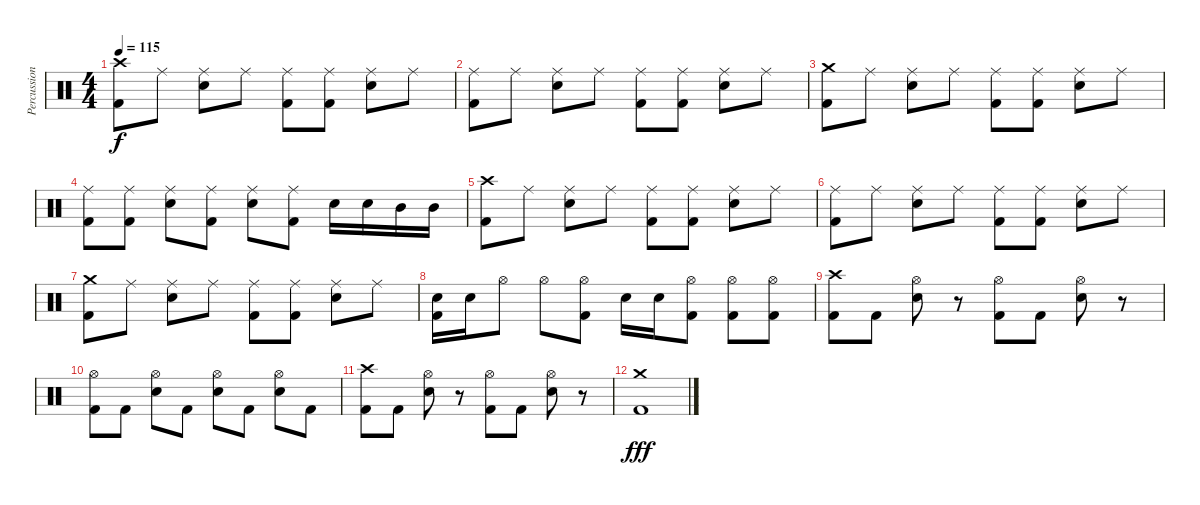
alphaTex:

\track ("Percussion" "Percussion") {instrument percussion}
\staff {score}
\articulation defaults
\ts (4 4)
\tempo 115
\clef neutral
\ks c
("Crash high (hit)" "Kick (hit) 2").8{dy f} "Ride (middle)".8 ("Ride (middle)" "Electric Snare (hit)").8 "Ride (middle)".8 ("Ride (middle)" "Kick (hit) 2").8 ("Ride (middle)" "Kick (hit) 2").8 ("Ride (middle)" "Electric Snare (hit)").8 "Ride (middle)".8 |
("Ride (middle)" "Kick (hit) 2").8 "Ride (middle)".8 ("Ride (middle)" "Electric Snare (hit)").8 "Ride (middle)".8 ("Ride (middle)" "Kick (hit) 2").8 ("Ride (middle)" "Kick (hit) 2").8 ("Ride (middle)" "Electric Snare (hit)").8 "Ride (middle)".8 |
("Crash medium (hit)" "Kick (hit) 2").8 "Ride (middle)".8 ("Ride (middle)" "Electric Snare (hit)").8 "Ride (middle)".8 ("Ride (middle)" "Kick (hit) 2").8 ("Ride (middle)" "Kick (hit) 2").8 ("Ride (middle)" "Electric Snare (hit)").8 "Ride (middle)".8 |
("Ride (middle)" "Kick (hit) 2").8 ("Ride (middle)" "Kick (hit) 2").8 ("Ride (middle)" "Electric Snare (hit)").8 ("Ride (middle)" "Kick (hit) 2").8 ("Ride (middle)" "Electric Snare (hit)").8 ("Ride (middle)" "Kick (hit) 2").8 "Electric Snare (hit)".16 "Electric Snare (hit)".16 "Mid Tom (hit)".16 "Mid Tom (hit)".16 |
("Crash high (hit)" "Kick (hit) 2").8 "Ride (middle)".8 ("Ride (middle)" "Electric Snare (hit)").8 "Ride (middle)".8 ("Ride (middle)" "Kick (hit) 2").8 ("Ride (middle)" "Kick (hit) 2").8 ("Ride (middle)" "Electric Snare (hit)").8 "Ride (middle)".8 |
("Ride (middle)" "Kick (hit) 2").8 "Ride (middle)".8 ("Ride (middle)" "Electric Snare (hit)").8 "Ride (middle)".8 ("Ride (middle)" "Kick (hit) 2").8 ("Ride (middle)" "Kick (hit) 2").8 ("Ride (middle)" "Electric Snare (hit)").8 "Ride (middle)".8 |
("Crash medium (hit)" "Kick (hit) 2").8 "Ride (middle)".8 ("Ride (middle)" "Electric Snare (hit)").8 "Ride (middle)".8 ("Ride (middle)" "Kick (hit) 2").8 ("Ride (middle)" "Kick (hit) 2").8 ("Ride (middle)" "Electric Snare (hit)").8 "Ride (middle)".8 |
("Electric Snare (hit)" "Kick (hit) 2").16 "Electric Snare (hit)".16 "Hi-Hat (open)".8 "Hi-Hat (open)".8 ("Hi-Hat (open)" "Kick (hit) 2").8 "Electric Snare (hit)".16 "Electric Snare (hit)".16 ("Hi-Hat (open)" "Kick (hit) 2").8 ("Hi-Hat (open)" "Kick (hit) 2").8 ("Hi-Hat (open)" "Kick (hit) 2").8 |
("Crash high (hit)" "Kick (hit) 2").8 "Kick (hit) 2".8 ("Hi-Hat (open)" "Electric Snare (hit)").8 r.8 ("Hi-Hat (open)" "Kick (hit) 2").8 "Kick (hit) 2".8 ("Hi-Hat (open)" "Electric Snare (hit)").8 r.8 |
("Hi-Hat (open)" "Kick (hit) 2").8 "Kick (hit) 2".8 ("Hi-Hat (open)" "Electric Snare (hit)").8 "Kick (hit) 2".8 ("Hi-Hat (open)" "Electric Snare (hit)").8 "Kick (hit) 2".8 ("Hi-Hat (open)" "Electric Snare (hit)").8 "Kick (hit) 2".8 |
("Crash high (hit)" "Kick (hit) 2").8 "Kick (hit) 2".8 ("Hi-Hat (open)" "Electric Snare (hit)").8 r.8 ("Hi-Hat (open)" "Kick (hit) 2").8 "Kick (hit) 2".8 ("Hi-Hat (open)" "Electric Snare (hit)").8 r.8 |
("Crash medium (hit)" "Kick (hit) 2").1{dy fff}
